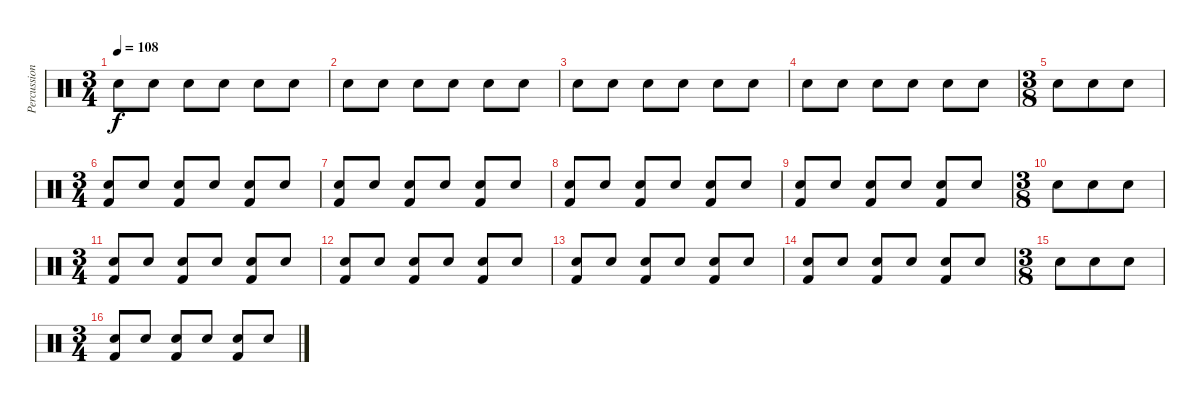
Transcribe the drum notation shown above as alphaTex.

\track ("Percussion" "Percussion") {instrument percussion}
\staff {score}
\articulation defaults
\ts (3 4)
\tempo 108
\clef neutral
\ks c "Snare (hit) 2".8{dy f} "Snare (hit) 2".8 "Snare (hit) 2".8 "Snare (hit) 2".8 "Snare (hit) 2".8 "Snare (hit) 2".8
|
"Snare (hit) 2".8 "Snare (hit) 2".8 "Snare (hit) 2".8 "Snare (hit) 2".8 "Snare (hit) 2".8 "Snare (hit) 2".8 |
"Snare (hit) 2".8 "Snare (hit) 2".8 "Snare (hit) 2".8 "Snare (hit) 2".8 "Snare (hit) 2".8 "Snare (hit) 2".8 |
"Snare (hit) 2".8 "Snare (hit) 2".8 "Snare (hit) 2".8 "Snare (hit) 2".8 "Snare (hit) 2".8 "Snare (hit) 2".8 |
\ts (3 8)
"Snare (hit) 2".8 "Snare (hit) 2".8 "Snare (hit) 2".8 |
\ts (3 4)
("Snare (hit) 2" "Kick (hit) 2").8 "Snare (hit) 2".8 ("Snare (hit) 2" "Kick (hit) 2").8 "Snare (hit) 2".8 ("Snare (hit) 2" "Kick (hit) 2").8 "Snare (hit) 2".8 |
("Snare (hit) 2" "Kick (hit) 2").8 "Snare (hit) 2".8 ("Snare (hit) 2" "Kick (hit) 2").8 "Snare (hit) 2".8 ("Snare (hit) 2" "Kick (hit) 2").8 "Snare (hit) 2".8 |
("Snare (hit) 2" "Kick (hit) 2").8 "Snare (hit) 2".8 ("Snare (hit) 2" "Kick (hit) 2").8 "Snare (hit) 2".8 ("Snare (hit) 2" "Kick (hit) 2").8 "Snare (hit) 2".8 |
("Snare (hit) 2" "Kick (hit) 2").8 "Snare (hit) 2".8 ("Snare (hit) 2" "Kick (hit) 2").8 "Snare (hit) 2".8 ("Snare (hit) 2" "Kick (hit) 2").8 "Snare (hit) 2".8 |
\ts (3 8)
"Snare (hit) 2".8 "Snare (hit) 2".8 "Snare (hit) 2".8 |
\ts (3 4)
("Snare (hit) 2" "Kick (hit) 2").8 "Snare (hit) 2".8 ("Snare (hit) 2" "Kick (hit) 2").8 "Snare (hit) 2".8 ("Snare (hit) 2" "Kick (hit) 2").8 "Snare (hit) 2".8 |
("Snare (hit) 2" "Kick (hit) 2").8 "Snare (hit) 2".8 ("Snare (hit) 2" "Kick (hit) 2").8 "Snare (hit) 2".8 ("Snare (hit) 2" "Kick (hit) 2").8 "Snare (hit) 2".8 |
("Snare (hit) 2" "Kick (hit) 2").8 "Snare (hit) 2".8 ("Snare (hit) 2" "Kick (hit) 2").8 "Snare (hit) 2".8 ("Snare (hit) 2" "Kick (hit) 2").8 "Snare (hit) 2".8 |
("Snare (hit) 2" "Kick (hit) 2").8 "Snare (hit) 2".8 ("Snare (hit) 2" "Kick (hit) 2").8 "Snare (hit) 2".8 ("Snare (hit) 2" "Kick (hit) 2").8 "Snare (hit) 2".8 |
\ts (3 8)
"Snare (hit) 2".8 "Snare (hit) 2".8 "Snare (hit) 2".8 |
\ts (3 4)
("Snare (hit) 2" "Kick (hit) 2").8 "Snare (hit) 2".8 ("Snare (hit) 2" "Kick (hit) 2").8 "Snare (hit) 2".8 ("Snare (hit) 2" "Kick (hit) 2").8 "Snare (hit) 2".8
